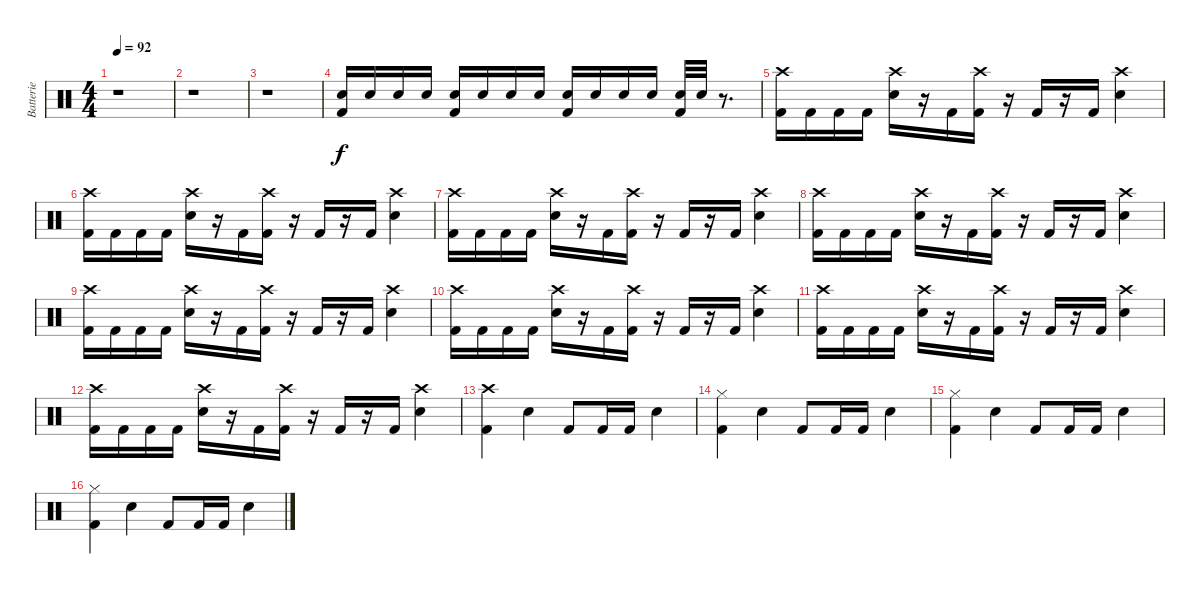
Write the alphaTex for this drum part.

\track ("Batterie" "Batterie") {instrument percussion}
\staff {score}
\articulation defaults
\ts (4 4)
\tempo 92
\clef neutral
\ks c
r.1{dy f volume 4} |
r.1 |
r.1 |
("Electric Snare (hit)" "Kick (hit) 2").16{volume 16} "Electric Snare (hit)".16 "Electric Snare (hit)".16 "Electric Snare (hit)".16 ("Electric Snare (hit)" "Kick (hit) 2").16 "Electric Snare (hit)".16 "Electric Snare (hit)".16 "Electric Snare (hit)".16 ("Electric Snare (hit)" "Kick (hit) 2").16 "Electric Snare (hit)".16 "Electric Snare (hit)".16 "Electric Snare (hit)".16 ("Electric Snare (hit)" "Kick (hit) 2").32 "Electric Snare (hit)".32 r.8{d} |
\section ("" "")
("Crash high (hit)" "Kick (hit) 2").16 "Kick (hit) 2".16 "Kick (hit) 2".16 "Kick (hit) 2".16 ("Crash high (hit)" "Electric Snare (hit)").16 r.16 "Kick (hit) 2".16 ("Crash high (hit)" "Kick (hit) 2").16 r.16 "Kick (hit) 2".16 r.16 "Kick (hit) 2".16 ("Crash high (hit)" "Electric Snare (hit)").4 |
("Crash high (hit)" "Kick (hit) 2").16 "Kick (hit) 2".16 "Kick (hit) 2".16 "Kick (hit) 2".16 ("Crash high (hit)" "Electric Snare (hit)").16 r.16 "Kick (hit) 2".16 ("Crash high (hit)" "Kick (hit) 2").16 r.16 "Kick (hit) 2".16 r.16 "Kick (hit) 2".16 ("Crash high (hit)" "Electric Snare (hit)").4 |
("Crash high (hit)" "Kick (hit) 2").16 "Kick (hit) 2".16 "Kick (hit) 2".16 "Kick (hit) 2".16 ("Crash high (hit)" "Electric Snare (hit)").16 r.16 "Kick (hit) 2".16 ("Crash high (hit)" "Kick (hit) 2").16 r.16 "Kick (hit) 2".16 r.16 "Kick (hit) 2".16 ("Crash high (hit)" "Electric Snare (hit)").4 |
("Crash high (hit)" "Kick (hit) 2").16 "Kick (hit) 2".16 "Kick (hit) 2".16 "Kick (hit) 2".16 ("Crash high (hit)" "Electric Snare (hit)").16 r.16 "Kick (hit) 2".16 ("Crash high (hit)" "Kick (hit) 2").16 r.16 "Kick (hit) 2".16 r.16 "Kick (hit) 2".16 ("Crash high (hit)" "Electric Snare (hit)").4 |
("Crash high (hit)" "Kick (hit) 2").16 "Kick (hit) 2".16 "Kick (hit) 2".16 "Kick (hit) 2".16 ("Crash high (hit)" "Electric Snare (hit)").16 r.16 "Kick (hit) 2".16 ("Crash high (hit)" "Kick (hit) 2").16 r.16 "Kick (hit) 2".16 r.16 "Kick (hit) 2".16 ("Crash high (hit)" "Electric Snare (hit)").4 |
("Crash high (hit)" "Kick (hit) 2").16 "Kick (hit) 2".16 "Kick (hit) 2".16 "Kick (hit) 2".16 ("Crash high (hit)" "Electric Snare (hit)").16 r.16 "Kick (hit) 2".16 ("Crash high (hit)" "Kick (hit) 2").16 r.16 "Kick (hit) 2".16 r.16 "Kick (hit) 2".16 ("Crash high (hit)" "Electric Snare (hit)").4 |
("Crash high (hit)" "Kick (hit) 2").16 "Kick (hit) 2".16 "Kick (hit) 2".16 "Kick (hit) 2".16 ("Crash high (hit)" "Electric Snare (hit)").16 r.16 "Kick (hit) 2".16 ("Crash high (hit)" "Kick (hit) 2").16 r.16 "Kick (hit) 2".16 r.16 "Kick (hit) 2".16 ("Crash high (hit)" "Electric Snare (hit)").4 |
("Crash high (hit)" "Kick (hit) 2").16 "Kick (hit) 2".16 "Kick (hit) 2".16 "Kick (hit) 2".16 ("Crash high (hit)" "Electric Snare (hit)").16 r.16 "Kick (hit) 2".16 ("Crash high (hit)" "Kick (hit) 2").16 r.16 "Kick (hit) 2".16 r.16 "Kick (hit) 2".16 ("Crash high (hit)" "Electric Snare (hit)").4 |
\section ("" "")
("Crash high (hit)" "Kick (hit) 2").4 "Electric Snare (hit)".4 "Kick (hit) 2".8 "Kick (hit) 2".16 "Kick (hit) 2".16 "Electric Snare (hit)".4 |
("Hi-Hat (closed)" "Kick (hit) 2").4 "Electric Snare (hit)".4 "Kick (hit) 2".8 "Kick (hit) 2".16 "Kick (hit) 2".16 "Electric Snare (hit)".4 |
("Hi-Hat (closed)" "Kick (hit) 2").4 "Electric Snare (hit)".4 "Kick (hit) 2".8 "Kick (hit) 2".16 "Kick (hit) 2".16 "Electric Snare (hit)".4 |
("Hi-Hat (closed)" "Kick (hit) 2").4 "Electric Snare (hit)".4 "Kick (hit) 2".8 "Kick (hit) 2".16 "Kick (hit) 2".16 "Electric Snare (hit)".4
